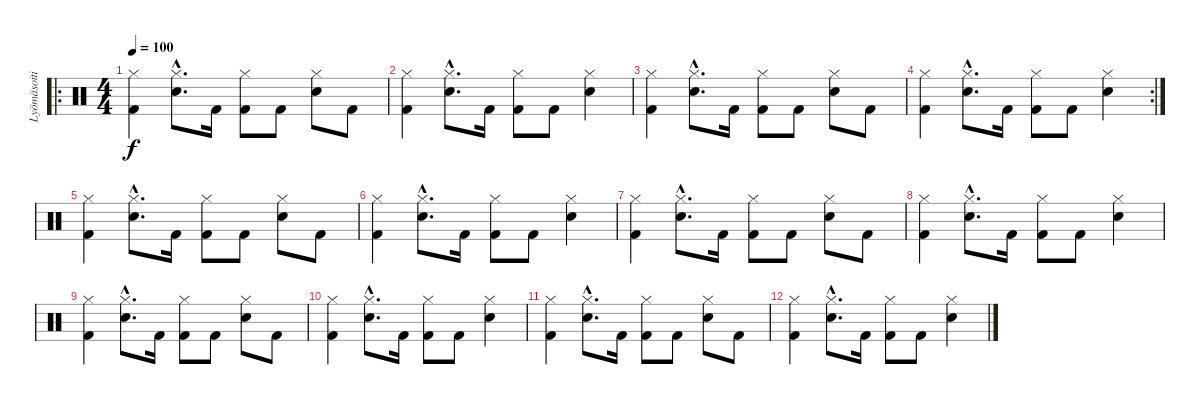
\track ("Lyömäsoitin" "Lyömäsoiti") {instrument percussion}
\staff {score}
\articulation defaults
\ro
\ts (4 4)
\tempo 100
\clef neutral
\ks c
("Kick (hit) 2" "Hi-Hat (closed)").4{dy f} ("Snare (hit) 2"{hac} "Hi-Hat (closed)"{hac}).8{d} "Kick (hit) 2".16 ("Hi-Hat (closed)" "Kick (hit) 2").8 "Kick (hit) 2".8 ("Hi-Hat (closed)" "Snare (hit) 2").8 "Kick (hit) 2".8 |
("Kick (hit) 2" "Hi-Hat (closed)").4 ("Snare (hit) 2"{hac} "Hi-Hat (closed)"{hac}).8{d} "Kick (hit) 2".16 ("Hi-Hat (closed)" "Kick (hit) 2").8 "Kick (hit) 2".8 ("Hi-Hat (closed)" "Snare (hit) 2").4 |
("Kick (hit) 2" "Hi-Hat (closed)").4 ("Snare (hit) 2"{hac} "Hi-Hat (closed)"{hac}).8{d} "Kick (hit) 2".16 ("Hi-Hat (closed)" "Kick (hit) 2").8 "Kick (hit) 2".8 ("Hi-Hat (closed)" "Snare (hit) 2").8 "Kick (hit) 2".8 |
\rc 2
("Kick (hit) 2" "Hi-Hat (closed)").4 ("Snare (hit) 2"{hac} "Hi-Hat (closed)"{hac}).8{d} "Kick (hit) 2".16 ("Hi-Hat (closed)" "Kick (hit) 2").8 "Kick (hit) 2".8 ("Hi-Hat (closed)" "Snare (hit) 2").4 |
("Kick (hit) 2" "Hi-Hat (closed)").4 ("Snare (hit) 2"{hac} "Hi-Hat (closed)"{hac}).8{d} "Kick (hit) 2".16 ("Hi-Hat (closed)" "Kick (hit) 2").8 "Kick (hit) 2".8 ("Hi-Hat (closed)" "Snare (hit) 2").8 "Kick (hit) 2".8 |
("Kick (hit) 2" "Hi-Hat (closed)").4 ("Snare (hit) 2"{hac} "Hi-Hat (closed)"{hac}).8{d} "Kick (hit) 2".16 ("Hi-Hat (closed)" "Kick (hit) 2").8 "Kick (hit) 2".8 ("Hi-Hat (closed)" "Snare (hit) 2").4 |
("Kick (hit) 2" "Hi-Hat (closed)").4 ("Snare (hit) 2"{hac} "Hi-Hat (closed)"{hac}).8{d} "Kick (hit) 2".16 ("Hi-Hat (closed)" "Kick (hit) 2").8 "Kick (hit) 2".8 ("Hi-Hat (closed)" "Snare (hit) 2").8 "Kick (hit) 2".8 |
("Kick (hit) 2" "Hi-Hat (closed)").4 ("Snare (hit) 2"{hac} "Hi-Hat (closed)"{hac}).8{d} "Kick (hit) 2".16 ("Hi-Hat (closed)" "Kick (hit) 2").8 "Kick (hit) 2".8 ("Hi-Hat (closed)" "Snare (hit) 2").4 |
("Kick (hit) 2" "Hi-Hat (closed)").4 ("Snare (hit) 2"{hac} "Hi-Hat (closed)"{hac}).8{d} "Kick (hit) 2".16 ("Hi-Hat (closed)" "Kick (hit) 2").8 "Kick (hit) 2".8 ("Hi-Hat (closed)" "Snare (hit) 2").8 "Kick (hit) 2".8 |
("Kick (hit) 2" "Hi-Hat (closed)").4 ("Snare (hit) 2"{hac} "Hi-Hat (closed)"{hac}).8{d} "Kick (hit) 2".16 ("Hi-Hat (closed)" "Kick (hit) 2").8 "Kick (hit) 2".8 ("Hi-Hat (closed)" "Snare (hit) 2").4 |
("Kick (hit) 2" "Hi-Hat (closed)").4 ("Snare (hit) 2"{hac} "Hi-Hat (closed)"{hac}).8{d} "Kick (hit) 2".16 ("Hi-Hat (closed)" "Kick (hit) 2").8 "Kick (hit) 2".8 ("Hi-Hat (closed)" "Snare (hit) 2").8 "Kick (hit) 2".8 |
("Kick (hit) 2" "Hi-Hat (closed)").4 ("Snare (hit) 2"{hac} "Hi-Hat (closed)"{hac}).8{d} "Kick (hit) 2".16 ("Hi-Hat (closed)" "Kick (hit) 2").8 "Kick (hit) 2".8 ("Hi-Hat (closed)" "Snare (hit) 2").4
